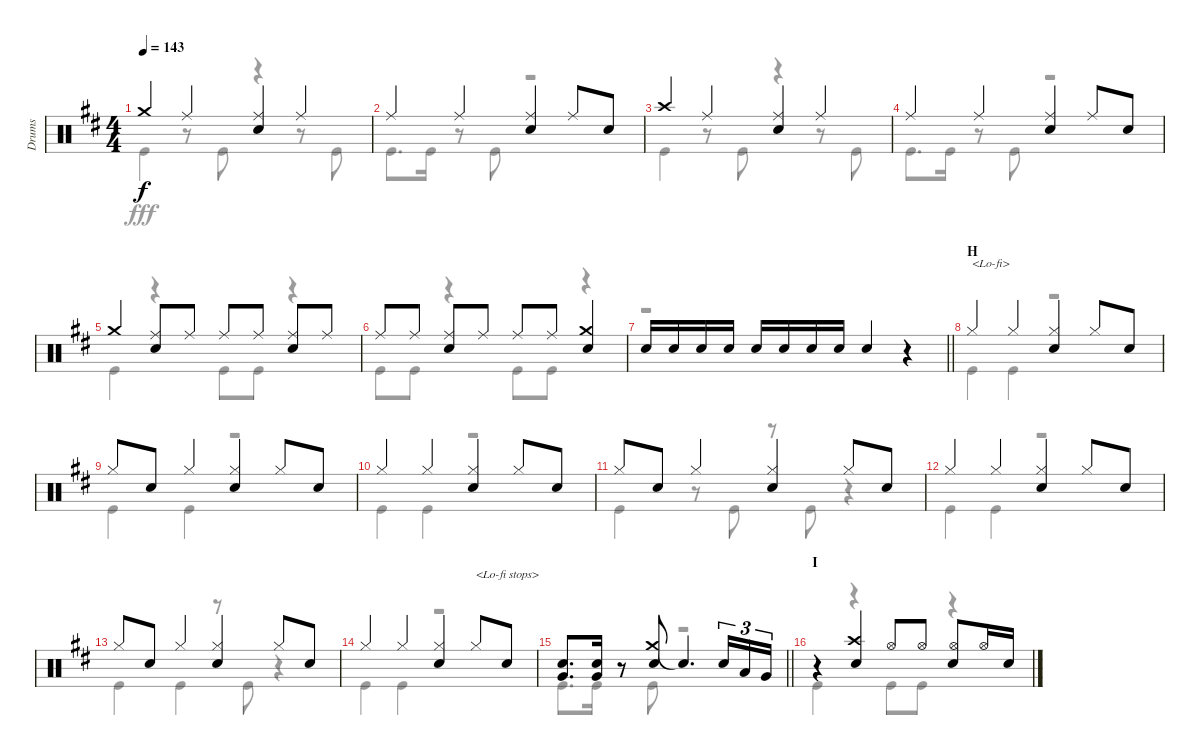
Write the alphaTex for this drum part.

\track ("Drums" "Drums") {instrument percussion}
\staff {score}
\articulation defaults
\voice
\ts (4 4)
\tempo 143
\clef neutral
\ks d "Crash medium (hit)".4{dy f} "Ride (middle)".4
("Ride (middle)" "Snare (hit) 2").4 "Ride (middle)".4 |
"Ride (middle)".4 "Ride (middle)".4 ("Ride (middle)" "Snare (hit) 2").4 "Ride (middle)".8 "Snare (hit) 2".8 |
"Crash high (hit)".4 "Ride (middle)".4 ("Ride (middle)" "Snare (hit) 2").4 "Ride (middle)".4 |
"Ride (middle)".4 "Ride (middle)".4 ("Ride (middle)" "Snare (hit) 2").4 "Ride (middle)".8 "Snare (hit) 2".8 |
"Crash medium (hit)".4 ("Ride (middle)" "Snare (hit) 2").8 "Ride (middle)".8 "Ride (middle)".8 "Ride (middle)".8 ("Ride (middle)" "Snare (hit) 2").8 "Ride (middle)".8 |
"Ride (middle)".8 "Ride (middle)".8 ("Ride (middle)" "Snare (hit) 2").8 "Ride (middle)".8 "Ride (middle)".8 "Ride (middle)".8 ("Crash medium (hit)" "Snare (hit) 2").4 |
\barLineRight lightlight "Snare (hit) 2".16 "Snare (hit) 2".16 "Snare (hit) 2".16 "Snare (hit) 2".16 "Snare (hit) 2".16 "Snare (hit) 2".16 "Snare (hit) 2".16 "Snare (hit) 2".16 "Snare (hit) 2".4
r.4 |
\section ("" "H")
"Hi-Hat (closed)".4{txt "<Lo-fi>"} "Hi-Hat (closed)".4 ("Hi-Hat (closed)" "Snare (hit) 2").4 "Hi-Hat (closed)".8 "Snare (hit) 2".8 |
"Hi-Hat (closed)".8 "Snare (hit) 2".8 "Hi-Hat (closed)".4 ("Hi-Hat (closed)" "Snare (hit) 2").4 "Hi-Hat (closed)".8 "Snare (hit) 2".8 |
"Hi-Hat (closed)".4 "Hi-Hat (closed)".4 ("Hi-Hat (closed)" "Snare (hit) 2").4 "Hi-Hat (closed)".8 "Snare (hit) 2".8 |
"Hi-Hat (closed)".8 "Snare (hit) 2".8 "Hi-Hat (closed)".4 ("Hi-Hat (closed)" "Snare (hit) 2").4 "Hi-Hat (closed)".8 "Snare (hit) 2".8 |
"Hi-Hat (closed)".4 "Hi-Hat (closed)".4 ("Hi-Hat (closed)" "Snare (hit) 2").4 "Hi-Hat (closed)".8 "Snare (hit) 2".8 |
"Hi-Hat (closed)".8 "Snare (hit) 2".8 "Hi-Hat (closed)".4 ("Hi-Hat (closed)" "Snare (hit) 2").4 "Hi-Hat (closed)".8 "Snare (hit) 2".8 |
"Hi-Hat (closed)".4 "Hi-Hat (closed)".4 ("Hi-Hat (closed)" "Snare (hit) 2").4 "Hi-Hat (closed)".8{txt "<Lo-fi stops>"} "Snare (hit) 2".8 |
\barLineRight lightlight
("Snare (hit) 2" "Very Low Tom (hit)").8{d} ("Snare (hit) 2" "Very Low Tom (hit)").16 r.8 ("Crash medium (hit)" "Snare (hit) 2").8 "Snare (hit)"{t}.4{d} "Snare (hit) 2".16{tu (3 2)} "Low Tom (hit)".16{tu (3 2)} "Very Low Tom (hit)".16{tu (3 2)} |
\section ("" "I")
r.4 ("Crash high (hit)" "Snare (hit) 2").4 "Hi-Hat (open)".8 "Hi-Hat (open)".8 ("Hi-Hat (open)" "Snare (hit) 2").8 "Hi-Hat (open)".16 "Snare (hit) 2".16
\voice
\clef neutral
\ottava regular
\simile none
\ks d "Kick (hit)".4{dy fff}
r.8 "Kick (hit)".8 r.4 r.8 "Kick (hit)".8 |
"Kick (hit)".8{d} "Kick (hit)".16 r.8 "Kick (hit)".8 r.2 |
"Kick (hit)".4 r.8 "Kick (hit)".8 r.4 r.8 "Kick (hit)".8 |
"Kick (hit)".8{d} "Kick (hit)".16 r.8 "Kick (hit)".8 r.2 |
"Kick (hit)".4 r.4 "Kick (hit)".8 "Kick (hit)".8 r.4 |
"Kick (hit)".8 "Kick (hit)".8 r.4 "Kick (hit)".8 "Kick (hit)".8 r.4 |
\barLineRight lightlight
r.1 |
"Kick (hit)".4 "Kick (hit)".4 r.2 |
"Kick (hit)".4 "Kick (hit)".4 r.2 |
"Kick (hit)".4 "Kick (hit)".4 r.2 |
"Kick (hit)".4 r.8 "Kick (hit)".8 r.8 "Kick (hit)".8 r.4 |
"Kick (hit)".4 "Kick (hit)".4 r.2 |
"Kick (hit)".4 "Kick (hit)".4 r.8 "Kick (hit)".8 r.4 |
"Kick (hit)".4 "Kick (hit)".4 r.2 |
\barLineRight lightlight "Kick (hit)".8{d} "Kick (hit)".16
r.8 "Kick (hit)".8 r.2 |
"Kick (hit)".4 r.4 "Kick (hit)".8 "Kick (hit)".8 r.4
